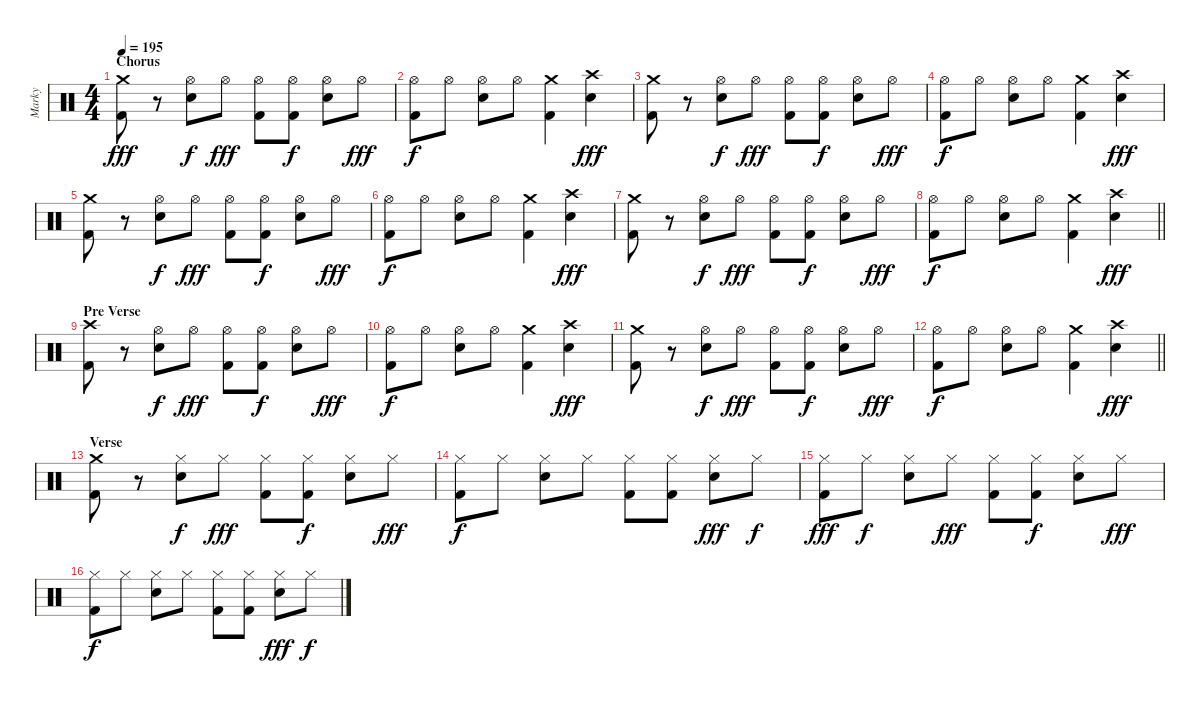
\track ("Marky" "Marky") {instrument percussion}
\staff {score}
\articulation defaults
\ts (4 4)
\section ("" "Chorus")
\tempo 195
\clef neutral
\ks c
("Crash medium (hit)" "Kick (hit) 2").8{dy fff} r.8 ("Hi-Hat (open)" "Electric Snare (hit)").8{dy f} "Hi-Hat (open)".8{dy fff} ("Hi-Hat (open)" "Kick (hit) 2").8 ("Hi-Hat (open)" "Kick (hit) 2").8{dy f} ("Hi-Hat (open)" "Electric Snare (hit)").8 "Hi-Hat (open)".8{dy fff} |
("Hi-Hat (open)" "Kick (hit) 2").8{dy f} "Hi-Hat (open)".8 ("Hi-Hat (open)" "Electric Snare (hit)").8 "Hi-Hat (open)".8 ("Crash medium (hit)" "Kick (hit) 2").4 ("Crash high (hit)" "Electric Snare (hit)").4{dy fff} |
("Crash medium (hit)" "Kick (hit) 2").8 r.8 ("Hi-Hat (open)" "Electric Snare (hit)").8{dy f} "Hi-Hat (open)".8{dy fff} ("Hi-Hat (open)" "Kick (hit) 2").8 ("Hi-Hat (open)" "Kick (hit) 2").8{dy f} ("Hi-Hat (open)" "Electric Snare (hit)").8 "Hi-Hat (open)".8{dy fff} |
("Hi-Hat (open)" "Kick (hit) 2").8{dy f} "Hi-Hat (open)".8 ("Hi-Hat (open)" "Electric Snare (hit)").8 "Hi-Hat (open)".8 ("Crash medium (hit)" "Kick (hit) 2").4 ("Crash high (hit)" "Electric Snare (hit)").4{dy fff} |
("Crash medium (hit)" "Kick (hit) 2").8 r.8 ("Hi-Hat (open)" "Electric Snare (hit)").8{dy f} "Hi-Hat (open)".8{dy fff} ("Hi-Hat (open)" "Kick (hit) 2").8 ("Hi-Hat (open)" "Kick (hit) 2").8{dy f} ("Hi-Hat (open)" "Electric Snare (hit)").8 "Hi-Hat (open)".8{dy fff} |
("Hi-Hat (open)" "Kick (hit) 2").8{dy f} "Hi-Hat (open)".8 ("Hi-Hat (open)" "Electric Snare (hit)").8 "Hi-Hat (open)".8 ("Crash medium (hit)" "Kick (hit) 2").4 ("Crash high (hit)" "Electric Snare (hit)").4{dy fff} |
("Crash medium (hit)" "Kick (hit) 2").8 r.8 ("Hi-Hat (open)" "Electric Snare (hit)").8{dy f} "Hi-Hat (open)".8{dy fff} ("Hi-Hat (open)" "Kick (hit) 2").8 ("Hi-Hat (open)" "Kick (hit) 2").8{dy f} ("Hi-Hat (open)" "Electric Snare (hit)").8 "Hi-Hat (open)".8{dy fff} |
\barLineRight lightlight
("Hi-Hat (open)" "Kick (hit) 2").8{dy f} "Hi-Hat (open)".8 ("Hi-Hat (open)" "Electric Snare (hit)").8 "Hi-Hat (open)".8 ("Crash medium (hit)" "Kick (hit) 2").4 ("Crash high (hit)" "Electric Snare (hit)").4{dy fff} |
\section ("" "Pre Verse")
("Crash high (hit)" "Kick (hit) 2").8 r.8 ("Hi-Hat (open)" "Electric Snare (hit)").8{dy f} "Hi-Hat (open)".8{dy fff} ("Hi-Hat (open)" "Kick (hit) 2").8 ("Hi-Hat (open)" "Kick (hit) 2").8{dy f} ("Hi-Hat (open)" "Electric Snare (hit)").8 "Hi-Hat (open)".8{dy fff} |
("Hi-Hat (open)" "Kick (hit) 2").8{dy f} "Hi-Hat (open)".8 ("Hi-Hat (open)" "Electric Snare (hit)").8 "Hi-Hat (open)".8 ("Crash medium (hit)" "Kick (hit) 2").4 ("Crash high (hit)" "Electric Snare (hit)").4{dy fff} |
("Crash medium (hit)" "Kick (hit) 2").8 r.8 ("Hi-Hat (open)" "Electric Snare (hit)").8{dy f} "Hi-Hat (open)".8{dy fff} ("Hi-Hat (open)" "Kick (hit) 2").8 ("Hi-Hat (open)" "Kick (hit) 2").8{dy f} ("Hi-Hat (open)" "Electric Snare (hit)").8 "Hi-Hat (open)".8{dy fff} |
\barLineRight lightlight
("Hi-Hat (open)" "Kick (hit) 2").8{dy f} "Hi-Hat (open)".8 ("Hi-Hat (open)" "Electric Snare (hit)").8 "Hi-Hat (open)".8 ("Crash medium (hit)" "Kick (hit) 2").4 ("Crash high (hit)" "Electric Snare (hit)").4{dy fff} |
\section ("" "Verse")
("Crash medium (hit)" "Kick (hit) 2").8 r.8 ("Hi-Hat (closed)" "Electric Snare (hit)").8{dy f} "Hi-Hat (closed)".8{dy fff} ("Hi-Hat (closed)" "Kick (hit) 2").8 ("Hi-Hat (closed)" "Kick (hit) 2").8{dy f} ("Hi-Hat (closed)" "Electric Snare (hit)").8 "Hi-Hat (closed)".8{dy fff} |
("Hi-Hat (closed)" "Kick (hit) 2").8{dy f} "Hi-Hat (closed)".8 ("Hi-Hat (closed)" "Electric Snare (hit)").8 "Hi-Hat (closed)".8 ("Hi-Hat (closed)" "Kick (hit) 2").8 ("Hi-Hat (closed)" "Kick (hit) 2").8 ("Hi-Hat (closed)" "Electric Snare (hit)").8{dy fff} "Hi-Hat (closed)".8{dy f} |
("Hi-Hat (closed)" "Kick (hit) 2").8{dy fff} "Hi-Hat (closed)".8{dy f} ("Hi-Hat (closed)" "Electric Snare (hit)").8 "Hi-Hat (closed)".8{dy fff} ("Hi-Hat (closed)" "Kick (hit) 2").8 ("Hi-Hat (closed)" "Kick (hit) 2").8{dy f} ("Hi-Hat (closed)" "Electric Snare (hit)").8 "Hi-Hat (closed)".8{dy fff} |
("Hi-Hat (closed)" "Kick (hit) 2").8{dy f} "Hi-Hat (closed)".8 ("Hi-Hat (closed)" "Electric Snare (hit)").8 "Hi-Hat (closed)".8 ("Hi-Hat (closed)" "Kick (hit) 2").8 ("Hi-Hat (closed)" "Kick (hit) 2").8 ("Hi-Hat (closed)" "Electric Snare (hit)").8{dy fff} "Hi-Hat (closed)".8{dy f}
